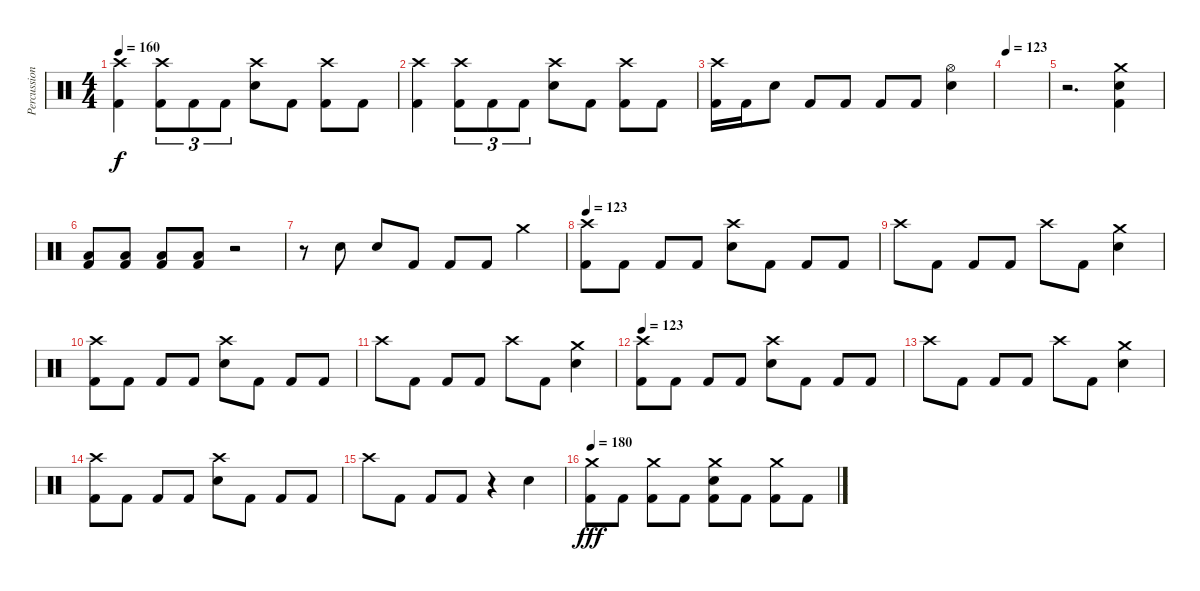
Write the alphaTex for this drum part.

\track ("Percussion" "Percussion") {instrument percussion}
\staff {score}
\articulation defaults
\ts (4 4)
\tempo 160
\clef neutral
\ks c
("Crash high (hit)" "Kick (hit) 2").4{dy f} ("Crash high (hit)" "Kick (hit) 2").8{tu (3 2)} "Kick (hit) 2".8{tu (3 2)} "Kick (hit) 2".8{tu (3 2)} ("Crash high (hit)" "Electric Snare (hit)").8 "Kick (hit) 2".8 ("Crash high (hit)" "Kick (hit) 2").8 "Kick (hit) 2".8 |
("Crash high (hit)" "Kick (hit) 2").4 ("Crash high (hit)" "Kick (hit) 2").8{tu (3 2)} "Kick (hit) 2".8{tu (3 2)} "Kick (hit) 2".8{tu (3 2)} ("Crash high (hit)" "Electric Snare (hit)").8 "Kick (hit) 2".8 ("Crash high (hit)" "Kick (hit) 2").8 "Kick (hit) 2".8 |
("Crash high (hit)" "Kick (hit) 2").16 "Kick (hit) 2".16 "Electric Snare (hit)".8 "Kick (hit) 2".8 "Kick (hit) 2".8 "Kick (hit) 2".8 "Kick (hit) 2".8 ("Hi-Hat (open)" "Electric Snare (hit)").4 |
\tempo 123
|
r.2{d} ("Crash medium (hit)" "Electric Snare (hit)" "Kick (hit) 2").4 |
("Low Tom (hit)" "Kick (hit) 2").8 ("Low Tom (hit)" "Kick (hit) 2").8 ("Low Tom (hit)" "Kick (hit) 2").8 ("Low Tom (hit)" "Kick (hit) 2").8 r.2 |
r.8 "Electric Snare (hit)".8 "Electric Snare (hit)".8 "Kick (hit) 2".8 "Kick (hit) 2".8 "Kick (hit) 2".8 "Crash medium (hit)".4 |
\tempo 123
("Crash high (hit)" "Kick (hit) 2").8 "Kick (hit) 2".8 "Kick (hit) 2".8 "Kick (hit) 2".8 ("Crash high (hit)" "Electric Snare (hit)").8 "Kick (hit) 2".8 "Kick (hit) 2".8 "Kick (hit) 2".8 |
"Crash high (hit)".8 "Kick (hit) 2".8 "Kick (hit) 2".8 "Kick (hit) 2".8 "Crash high (hit)".8 "Kick (hit) 2".8 ("Crash medium (hit)" "Electric Snare (hit)").4 |
("Crash high (hit)" "Kick (hit) 2").8 "Kick (hit) 2".8 "Kick (hit) 2".8 "Kick (hit) 2".8 ("Crash high (hit)" "Electric Snare (hit)").8 "Kick (hit) 2".8 "Kick (hit) 2".8 "Kick (hit) 2".8 |
"Crash high (hit)".8 "Kick (hit) 2".8 "Kick (hit) 2".8 "Kick (hit) 2".8 "Crash high (hit)".8 "Kick (hit) 2".8 ("Crash medium (hit)" "Electric Snare (hit)").4 |
\tempo 123
("Crash high (hit)" "Kick (hit) 2").8 "Kick (hit) 2".8 "Kick (hit) 2".8 "Kick (hit) 2".8 ("Crash high (hit)" "Electric Snare (hit)").8 "Kick (hit) 2".8 "Kick (hit) 2".8 "Kick (hit) 2".8 |
"Crash high (hit)".8 "Kick (hit) 2".8 "Kick (hit) 2".8 "Kick (hit) 2".8 "Crash high (hit)".8 "Kick (hit) 2".8 ("Crash medium (hit)" "Electric Snare (hit)").4 |
("Crash high (hit)" "Kick (hit) 2").8 "Kick (hit) 2".8 "Kick (hit) 2".8 "Kick (hit) 2".8 ("Crash high (hit)" "Electric Snare (hit)").8 "Kick (hit) 2".8 "Kick (hit) 2".8 "Kick (hit) 2".8 |
"Crash high (hit)".8 "Kick (hit) 2".8 "Kick (hit) 2".8 "Kick (hit) 2".8 r.4 "Electric Snare (hit)".4 |
\tempo 180
("Crash medium (hit)" "Kick (hit) 2").8{dy fff} "Kick (hit) 2".8 ("Crash medium (hit)" "Kick (hit) 2").8 "Kick (hit) 2".8 ("Crash medium (hit)" "Electric Snare (hit)" "Kick (hit) 2").8 "Kick (hit) 2".8 ("Crash medium (hit)" "Kick (hit) 2").8 "Kick (hit) 2".8
